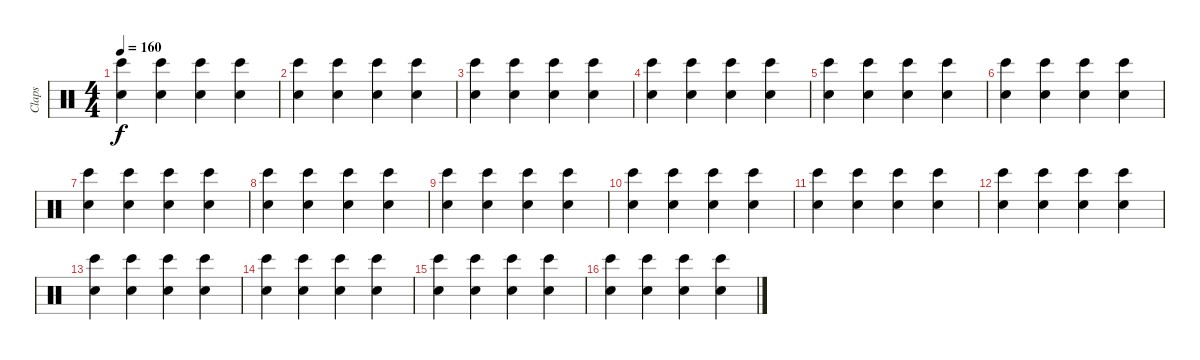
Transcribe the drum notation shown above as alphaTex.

\track ("Claps" "Claps") {instrument percussion}
\staff {score}
\articulation defaults
\ts (4 4)
\tempo 160
\clef neutral
\ks c
("Hand Clap (hit)" "Bongo High (hit)").4{dy f} ("Hand Clap (hit)" "Bongo High (hit)").4 ("Hand Clap (hit)" "Bongo High (hit)").4 ("Hand Clap (hit)" "Bongo High (hit)").4 |
("Hand Clap (hit)" "Bongo High (hit)").4 ("Hand Clap (hit)" "Bongo High (hit)").4 ("Hand Clap (hit)" "Bongo High (hit)").4 ("Hand Clap (hit)" "Bongo High (hit)").4 |
("Hand Clap (hit)" "Bongo High (hit)").4 ("Hand Clap (hit)" "Bongo High (hit)").4 ("Hand Clap (hit)" "Bongo High (hit)").4 ("Hand Clap (hit)" "Bongo High (hit)").4 |
("Hand Clap (hit)" "Bongo High (hit)").4 ("Hand Clap (hit)" "Bongo High (hit)").4 ("Hand Clap (hit)" "Bongo High (hit)").4 ("Hand Clap (hit)" "Bongo High (hit)").4 |
("Hand Clap (hit)" "Bongo High (hit)").4 ("Hand Clap (hit)" "Bongo High (hit)").4 ("Hand Clap (hit)" "Bongo High (hit)").4 ("Hand Clap (hit)" "Bongo High (hit)").4 |
("Hand Clap (hit)" "Bongo High (hit)").4 ("Hand Clap (hit)" "Bongo High (hit)").4 ("Hand Clap (hit)" "Bongo High (hit)").4 ("Hand Clap (hit)" "Bongo High (hit)").4 |
("Hand Clap (hit)" "Bongo High (hit)").4 ("Hand Clap (hit)" "Bongo High (hit)").4 ("Hand Clap (hit)" "Bongo High (hit)").4 ("Hand Clap (hit)" "Bongo High (hit)").4 |
("Hand Clap (hit)" "Bongo High (hit)").4 ("Hand Clap (hit)" "Bongo High (hit)").4 ("Hand Clap (hit)" "Bongo High (hit)").4 ("Hand Clap (hit)" "Bongo High (hit)").4 |
("Hand Clap (hit)" "Bongo High (hit)").4 ("Hand Clap (hit)" "Bongo High (hit)").4 ("Hand Clap (hit)" "Bongo High (hit)").4 ("Hand Clap (hit)" "Bongo High (hit)").4 |
("Hand Clap (hit)" "Bongo High (hit)").4 ("Hand Clap (hit)" "Bongo High (hit)").4 ("Hand Clap (hit)" "Bongo High (hit)").4 ("Hand Clap (hit)" "Bongo High (hit)").4 |
("Hand Clap (hit)" "Bongo High (hit)").4 ("Hand Clap (hit)" "Bongo High (hit)").4 ("Hand Clap (hit)" "Bongo High (hit)").4 ("Hand Clap (hit)" "Bongo High (hit)").4 |
("Hand Clap (hit)" "Bongo High (hit)").4 ("Hand Clap (hit)" "Bongo High (hit)").4 ("Hand Clap (hit)" "Bongo High (hit)").4 ("Hand Clap (hit)" "Bongo High (hit)").4 |
("Hand Clap (hit)" "Bongo High (hit)").4 ("Hand Clap (hit)" "Bongo High (hit)").4 ("Hand Clap (hit)" "Bongo High (hit)").4 ("Hand Clap (hit)" "Bongo High (hit)").4 |
("Hand Clap (hit)" "Bongo High (hit)").4 ("Hand Clap (hit)" "Bongo High (hit)").4 ("Hand Clap (hit)" "Bongo High (hit)").4 ("Hand Clap (hit)" "Bongo High (hit)").4 |
("Hand Clap (hit)" "Bongo High (hit)").4 ("Hand Clap (hit)" "Bongo High (hit)").4 ("Hand Clap (hit)" "Bongo High (hit)").4 ("Hand Clap (hit)" "Bongo High (hit)").4 |
("Hand Clap (hit)" "Bongo High (hit)").4 ("Hand Clap (hit)" "Bongo High (hit)").4 ("Hand Clap (hit)" "Bongo High (hit)").4 ("Hand Clap (hit)" "Bongo High (hit)").4
